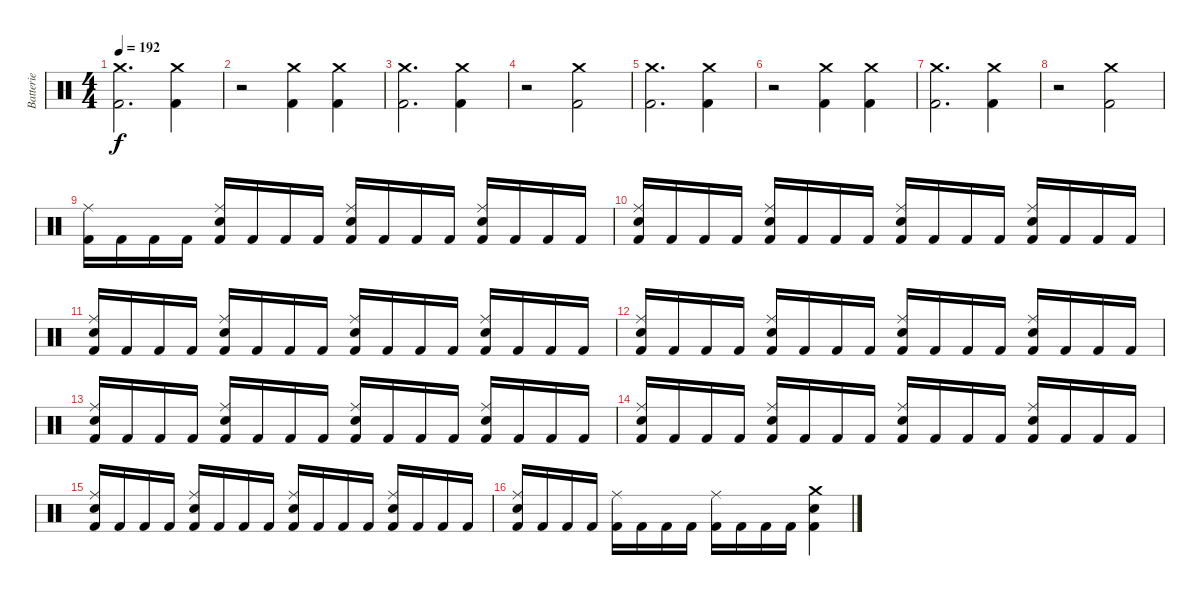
\track ("Batterie" "Batterie") {instrument percussion}
\staff {score}
\articulation defaults
\ts (4 4)
\section ("" "")
\tempo 192
\clef neutral
\ks c
("Crash medium (hit)" "Kick (hit) 2").2{d dy f} ("Crash medium (hit)" "Kick (hit) 2").4 |
r.2 ("Crash medium (hit)" "Kick (hit) 2").4 ("Crash medium (hit)" "Kick (hit) 2").4 |
("Crash medium (hit)" "Kick (hit) 2").2{d} ("Crash medium (hit)" "Kick (hit) 2").4 |
r.2 ("Crash medium (hit)" "Kick (hit) 2").2 |
("Crash medium (hit)" "Kick (hit) 2").2{d} ("Crash medium (hit)" "Kick (hit) 2").4 |
r.2 ("Crash medium (hit)" "Kick (hit) 2").4 ("Crash medium (hit)" "Kick (hit) 2").4 |
("Crash medium (hit)" "Kick (hit) 2").2{d} ("Crash medium (hit)" "Kick (hit) 2").4 |
r.2 ("Crash medium (hit)" "Kick (hit) 2").2 |
("Ride (middle)" "Kick (hit) 2").16 "Kick (hit) 2".16 "Kick (hit) 2".16 "Kick (hit) 2".16 ("Ride (middle)" "Snare (hit) 2" "Kick (hit) 2").16 "Kick (hit) 2".16 "Kick (hit) 2".16 "Kick (hit) 2".16 ("Ride (middle)" "Snare (hit) 2" "Kick (hit) 2").16 "Kick (hit) 2".16 "Kick (hit) 2".16 "Kick (hit) 2".16 ("Ride (middle)" "Snare (hit) 2" "Kick (hit) 2").16 "Kick (hit) 2".16 "Kick (hit) 2".16 "Kick (hit) 2".16 |
("Ride (middle)" "Snare (hit) 2" "Kick (hit) 2").16 "Kick (hit) 2".16 "Kick (hit) 2".16 "Kick (hit) 2".16 ("Ride (middle)" "Snare (hit) 2" "Kick (hit) 2").16 "Kick (hit) 2".16 "Kick (hit) 2".16 "Kick (hit) 2".16 ("Ride (middle)" "Snare (hit) 2" "Kick (hit) 2").16 "Kick (hit) 2".16 "Kick (hit) 2".16 "Kick (hit) 2".16 ("Ride (middle)" "Snare (hit) 2" "Kick (hit) 2").16 "Kick (hit) 2".16 "Kick (hit) 2".16 "Kick (hit) 2".16 |
("Ride (middle)" "Snare (hit) 2" "Kick (hit) 2").16 "Kick (hit) 2".16 "Kick (hit) 2".16 "Kick (hit) 2".16 ("Ride (middle)" "Snare (hit) 2" "Kick (hit) 2").16 "Kick (hit) 2".16 "Kick (hit) 2".16 "Kick (hit) 2".16 ("Ride (middle)" "Snare (hit) 2" "Kick (hit) 2").16 "Kick (hit) 2".16 "Kick (hit) 2".16 "Kick (hit) 2".16 ("Ride (middle)" "Snare (hit) 2" "Kick (hit) 2").16 "Kick (hit) 2".16 "Kick (hit) 2".16 "Kick (hit) 2".16 |
("Ride (middle)" "Snare (hit) 2" "Kick (hit) 2").16 "Kick (hit) 2".16 "Kick (hit) 2".16 "Kick (hit) 2".16 ("Ride (middle)" "Snare (hit) 2" "Kick (hit) 2").16 "Kick (hit) 2".16 "Kick (hit) 2".16 "Kick (hit) 2".16 ("Ride (middle)" "Snare (hit) 2" "Kick (hit) 2").16 "Kick (hit) 2".16 "Kick (hit) 2".16 "Kick (hit) 2".16 ("Ride (middle)" "Snare (hit) 2" "Kick (hit) 2").16 "Kick (hit) 2".16 "Kick (hit) 2".16 "Kick (hit) 2".16 |
("Ride (middle)" "Snare (hit) 2" "Kick (hit) 2").16 "Kick (hit) 2".16 "Kick (hit) 2".16 "Kick (hit) 2".16 ("Ride (middle)" "Snare (hit) 2" "Kick (hit) 2").16 "Kick (hit) 2".16 "Kick (hit) 2".16 "Kick (hit) 2".16 ("Ride (middle)" "Snare (hit) 2" "Kick (hit) 2").16 "Kick (hit) 2".16 "Kick (hit) 2".16 "Kick (hit) 2".16 ("Ride (middle)" "Snare (hit) 2" "Kick (hit) 2").16 "Kick (hit) 2".16 "Kick (hit) 2".16 "Kick (hit) 2".16 |
("Ride (middle)" "Snare (hit) 2" "Kick (hit) 2").16 "Kick (hit) 2".16 "Kick (hit) 2".16 "Kick (hit) 2".16 ("Ride (middle)" "Snare (hit) 2" "Kick (hit) 2").16 "Kick (hit) 2".16 "Kick (hit) 2".16 "Kick (hit) 2".16 ("Ride (middle)" "Snare (hit) 2" "Kick (hit) 2").16 "Kick (hit) 2".16 "Kick (hit) 2".16 "Kick (hit) 2".16 ("Ride (middle)" "Snare (hit) 2" "Kick (hit) 2").16 "Kick (hit) 2".16 "Kick (hit) 2".16 "Kick (hit) 2".16 |
("Ride (middle)" "Snare (hit) 2" "Kick (hit) 2").16 "Kick (hit) 2".16 "Kick (hit) 2".16 "Kick (hit) 2".16 ("Ride (middle)" "Snare (hit) 2" "Kick (hit) 2").16 "Kick (hit) 2".16 "Kick (hit) 2".16 "Kick (hit) 2".16 ("Ride (middle)" "Snare (hit) 2" "Kick (hit) 2").16 "Kick (hit) 2".16 "Kick (hit) 2".16 "Kick (hit) 2".16 ("Ride (middle)" "Snare (hit) 2" "Kick (hit) 2").16 "Kick (hit) 2".16 "Kick (hit) 2".16 "Kick (hit) 2".16 |
("Ride (middle)" "Snare (hit) 2" "Kick (hit) 2").16 "Kick (hit) 2".16 "Kick (hit) 2".16 "Kick (hit) 2".16 ("Ride (middle)" "Kick (hit) 2").16 "Kick (hit) 2".16 "Kick (hit) 2".16 "Kick (hit) 2".16 ("Ride (middle)" "Kick (hit) 2").16 "Kick (hit) 2".16 "Kick (hit) 2".16 "Kick (hit) 2".16 ("Crash medium (hit)" "Snare (hit) 2" "Kick (hit) 2").4
